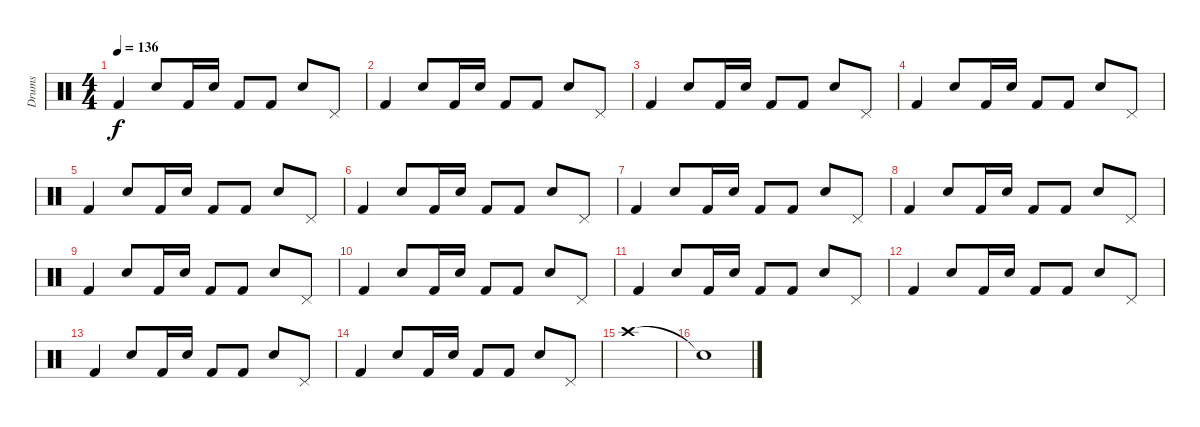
\track ("Drums" "Drums") {instrument percussion}
\staff {score}
\articulation defaults
\ts (4 4)
\tempo 136
\clef neutral
\ks c "Kick (hit) 2".4{dy f} "Snare (hit) 2".8 "Kick (hit) 2".16 "Snare (hit) 2".16 "Kick (hit) 2".8 "Kick (hit) 2".8 "Snare (hit) 2".8 "Pedal Hi-Hat (hit)".8
|
"Kick (hit) 2".4 "Snare (hit) 2".8 "Kick (hit) 2".16 "Snare (hit) 2".16 "Kick (hit) 2".8 "Kick (hit) 2".8 "Snare (hit) 2".8 "Pedal Hi-Hat (hit)".8 |
"Kick (hit) 2".4 "Snare (hit) 2".8 "Kick (hit) 2".16 "Snare (hit) 2".16 "Kick (hit) 2".8 "Kick (hit) 2".8 "Snare (hit) 2".8 "Pedal Hi-Hat (hit)".8 |
"Kick (hit) 2".4 "Snare (hit) 2".8 "Kick (hit) 2".16 "Snare (hit) 2".16 "Kick (hit) 2".8 "Kick (hit) 2".8 "Snare (hit) 2".8 "Pedal Hi-Hat (hit)".8 |
"Kick (hit) 2".4 "Snare (hit) 2".8 "Kick (hit) 2".16 "Snare (hit) 2".16 "Kick (hit) 2".8 "Kick (hit) 2".8 "Snare (hit) 2".8 "Pedal Hi-Hat (hit)".8 |
"Kick (hit) 2".4 "Snare (hit) 2".8 "Kick (hit) 2".16 "Snare (hit) 2".16 "Kick (hit) 2".8 "Kick (hit) 2".8 "Snare (hit) 2".8 "Pedal Hi-Hat (hit)".8 |
"Kick (hit) 2".4 "Snare (hit) 2".8 "Kick (hit) 2".16 "Snare (hit) 2".16 "Kick (hit) 2".8 "Kick (hit) 2".8 "Snare (hit) 2".8 "Pedal Hi-Hat (hit)".8 |
"Kick (hit) 2".4 "Snare (hit) 2".8 "Kick (hit) 2".16 "Snare (hit) 2".16 "Kick (hit) 2".8 "Kick (hit) 2".8 "Snare (hit) 2".8 "Pedal Hi-Hat (hit)".8 |
"Kick (hit) 2".4 "Snare (hit) 2".8 "Kick (hit) 2".16 "Snare (hit) 2".16 "Kick (hit) 2".8 "Kick (hit) 2".8 "Snare (hit) 2".8 "Pedal Hi-Hat (hit)".8 |
"Kick (hit) 2".4 "Snare (hit) 2".8 "Kick (hit) 2".16 "Snare (hit) 2".16 "Kick (hit) 2".8 "Kick (hit) 2".8 "Snare (hit) 2".8 "Pedal Hi-Hat (hit)".8 |
"Kick (hit) 2".4 "Snare (hit) 2".8 "Kick (hit) 2".16 "Snare (hit) 2".16 "Kick (hit) 2".8 "Kick (hit) 2".8 "Snare (hit) 2".8 "Pedal Hi-Hat (hit)".8 |
"Kick (hit) 2".4 "Snare (hit) 2".8 "Kick (hit) 2".16 "Snare (hit) 2".16 "Kick (hit) 2".8 "Kick (hit) 2".8 "Snare (hit) 2".8 "Pedal Hi-Hat (hit)".8 |
"Kick (hit) 2".4 "Snare (hit) 2".8 "Kick (hit) 2".16 "Snare (hit) 2".16 "Kick (hit) 2".8 "Kick (hit) 2".8 "Snare (hit) 2".8 "Pedal Hi-Hat (hit)".8 |
"Kick (hit) 2".4 "Snare (hit) 2".8 "Kick (hit) 2".16 "Snare (hit) 2".16 "Kick (hit) 2".8 "Kick (hit) 2".8 "Snare (hit) 2".8 "Pedal Hi-Hat (hit)".8 |
"Crash high (hit)".1 |
"Snare (hit)"{t}.1
